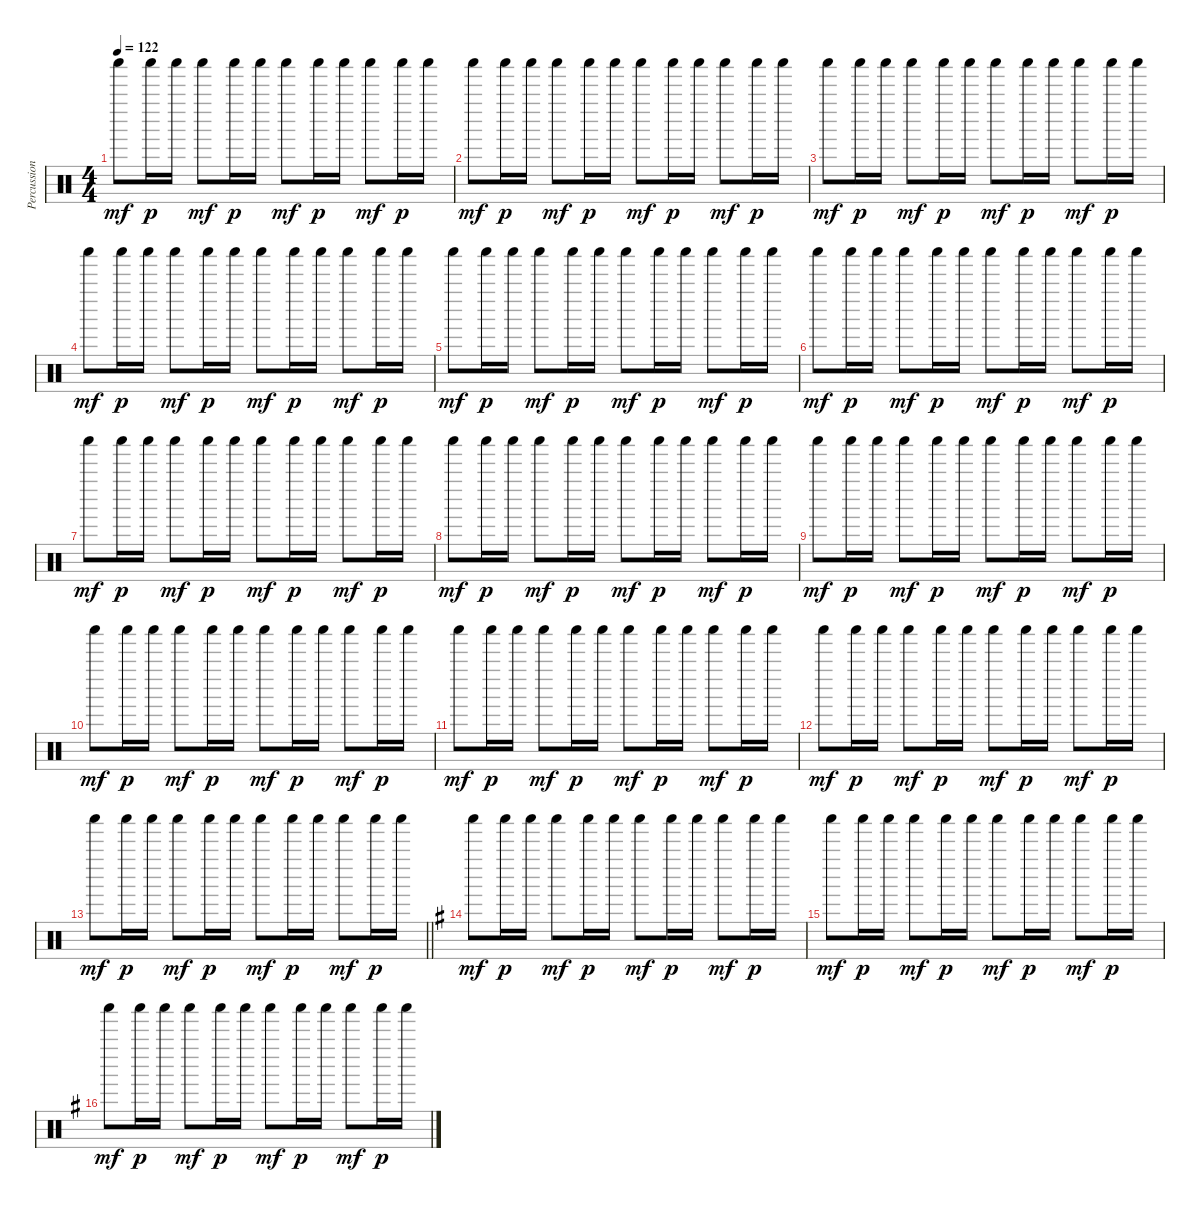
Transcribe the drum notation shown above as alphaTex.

\track ("Percussion" "Percussion") {instrument percussion}
\staff {score}
\articulation defaults
\ts (4 4)
\tempo 122
\clef neutral
\ks c "Shaker (hit)".8{dy mf} "Shaker (hit)".16{dy p} "Shaker (hit)".16 "Shaker (hit)".8{dy mf} "Shaker (hit)".16{dy p} "Shaker (hit)".16 "Shaker (hit)".8{dy mf} "Shaker (hit)".16{dy p} "Shaker (hit)".16 "Shaker (hit)".8{dy mf} "Shaker (hit)".16{dy p} "Shaker (hit)".16
|
"Shaker (hit)".8{dy mf} "Shaker (hit)".16{dy p} "Shaker (hit)".16 "Shaker (hit)".8{dy mf} "Shaker (hit)".16{dy p} "Shaker (hit)".16 "Shaker (hit)".8{dy mf} "Shaker (hit)".16{dy p} "Shaker (hit)".16 "Shaker (hit)".8{dy mf} "Shaker (hit)".16{dy p} "Shaker (hit)".16 |
"Shaker (hit)".8{dy mf} "Shaker (hit)".16{dy p} "Shaker (hit)".16 "Shaker (hit)".8{dy mf} "Shaker (hit)".16{dy p} "Shaker (hit)".16 "Shaker (hit)".8{dy mf} "Shaker (hit)".16{dy p} "Shaker (hit)".16 "Shaker (hit)".8{dy mf} "Shaker (hit)".16{dy p} "Shaker (hit)".16 |
"Shaker (hit)".8{dy mf} "Shaker (hit)".16{dy p} "Shaker (hit)".16 "Shaker (hit)".8{dy mf} "Shaker (hit)".16{dy p} "Shaker (hit)".16 "Shaker (hit)".8{dy mf} "Shaker (hit)".16{dy p} "Shaker (hit)".16 "Shaker (hit)".8{dy mf} "Shaker (hit)".16{dy p} "Shaker (hit)".16 |
"Shaker (hit)".8{dy mf} "Shaker (hit)".16{dy p} "Shaker (hit)".16 "Shaker (hit)".8{dy mf} "Shaker (hit)".16{dy p} "Shaker (hit)".16 "Shaker (hit)".8{dy mf} "Shaker (hit)".16{dy p} "Shaker (hit)".16 "Shaker (hit)".8{dy mf} "Shaker (hit)".16{dy p} "Shaker (hit)".16 |
"Shaker (hit)".8{dy mf} "Shaker (hit)".16{dy p} "Shaker (hit)".16 "Shaker (hit)".8{dy mf} "Shaker (hit)".16{dy p} "Shaker (hit)".16 "Shaker (hit)".8{dy mf} "Shaker (hit)".16{dy p} "Shaker (hit)".16 "Shaker (hit)".8{dy mf} "Shaker (hit)".16{dy p} "Shaker (hit)".16 |
"Shaker (hit)".8{dy mf} "Shaker (hit)".16{dy p} "Shaker (hit)".16 "Shaker (hit)".8{dy mf} "Shaker (hit)".16{dy p} "Shaker (hit)".16 "Shaker (hit)".8{dy mf} "Shaker (hit)".16{dy p} "Shaker (hit)".16 "Shaker (hit)".8{dy mf} "Shaker (hit)".16{dy p} "Shaker (hit)".16 |
"Shaker (hit)".8{dy mf} "Shaker (hit)".16{dy p} "Shaker (hit)".16 "Shaker (hit)".8{dy mf} "Shaker (hit)".16{dy p} "Shaker (hit)".16 "Shaker (hit)".8{dy mf} "Shaker (hit)".16{dy p} "Shaker (hit)".16 "Shaker (hit)".8{dy mf} "Shaker (hit)".16{dy p} "Shaker (hit)".16 |
"Shaker (hit)".8{dy mf} "Shaker (hit)".16{dy p} "Shaker (hit)".16 "Shaker (hit)".8{dy mf} "Shaker (hit)".16{dy p} "Shaker (hit)".16 "Shaker (hit)".8{dy mf} "Shaker (hit)".16{dy p} "Shaker (hit)".16 "Shaker (hit)".8{dy mf} "Shaker (hit)".16{dy p} "Shaker (hit)".16 |
"Shaker (hit)".8{dy mf} "Shaker (hit)".16{dy p} "Shaker (hit)".16 "Shaker (hit)".8{dy mf} "Shaker (hit)".16{dy p} "Shaker (hit)".16 "Shaker (hit)".8{dy mf} "Shaker (hit)".16{dy p} "Shaker (hit)".16 "Shaker (hit)".8{dy mf} "Shaker (hit)".16{dy p} "Shaker (hit)".16 |
"Shaker (hit)".8{dy mf} "Shaker (hit)".16{dy p} "Shaker (hit)".16 "Shaker (hit)".8{dy mf} "Shaker (hit)".16{dy p} "Shaker (hit)".16 "Shaker (hit)".8{dy mf} "Shaker (hit)".16{dy p} "Shaker (hit)".16 "Shaker (hit)".8{dy mf} "Shaker (hit)".16{dy p} "Shaker (hit)".16 |
"Shaker (hit)".8{dy mf} "Shaker (hit)".16{dy p} "Shaker (hit)".16 "Shaker (hit)".8{dy mf} "Shaker (hit)".16{dy p} "Shaker (hit)".16 "Shaker (hit)".8{dy mf} "Shaker (hit)".16{dy p} "Shaker (hit)".16 "Shaker (hit)".8{dy mf} "Shaker (hit)".16{dy p} "Shaker (hit)".16 |
\barLineRight lightlight "Shaker (hit)".8{dy mf} "Shaker (hit)".16{dy p} "Shaker (hit)".16 "Shaker (hit)".8{dy mf} "Shaker (hit)".16{dy p} "Shaker (hit)".16 "Shaker (hit)".8{dy mf} "Shaker (hit)".16{dy p} "Shaker (hit)".16 "Shaker (hit)".8{dy mf} "Shaker (hit)".16{dy p} "Shaker (hit)".16
|
\ks g "Shaker (hit)".8{dy mf} "Shaker (hit)".16{dy p} "Shaker (hit)".16 "Shaker (hit)".8{dy mf} "Shaker (hit)".16{dy p} "Shaker (hit)".16 "Shaker (hit)".8{dy mf} "Shaker (hit)".16{dy p} "Shaker (hit)".16 "Shaker (hit)".8{dy mf} "Shaker (hit)".16{dy p} "Shaker (hit)".16
|
"Shaker (hit)".8{dy mf} "Shaker (hit)".16{dy p} "Shaker (hit)".16 "Shaker (hit)".8{dy mf} "Shaker (hit)".16{dy p} "Shaker (hit)".16 "Shaker (hit)".8{dy mf} "Shaker (hit)".16{dy p} "Shaker (hit)".16 "Shaker (hit)".8{dy mf} "Shaker (hit)".16{dy p} "Shaker (hit)".16 |
"Shaker (hit)".8{dy mf} "Shaker (hit)".16{dy p} "Shaker (hit)".16 "Shaker (hit)".8{dy mf} "Shaker (hit)".16{dy p} "Shaker (hit)".16 "Shaker (hit)".8{dy mf} "Shaker (hit)".16{dy p} "Shaker (hit)".16 "Shaker (hit)".8{dy mf} "Shaker (hit)".16{dy p} "Shaker (hit)".16
